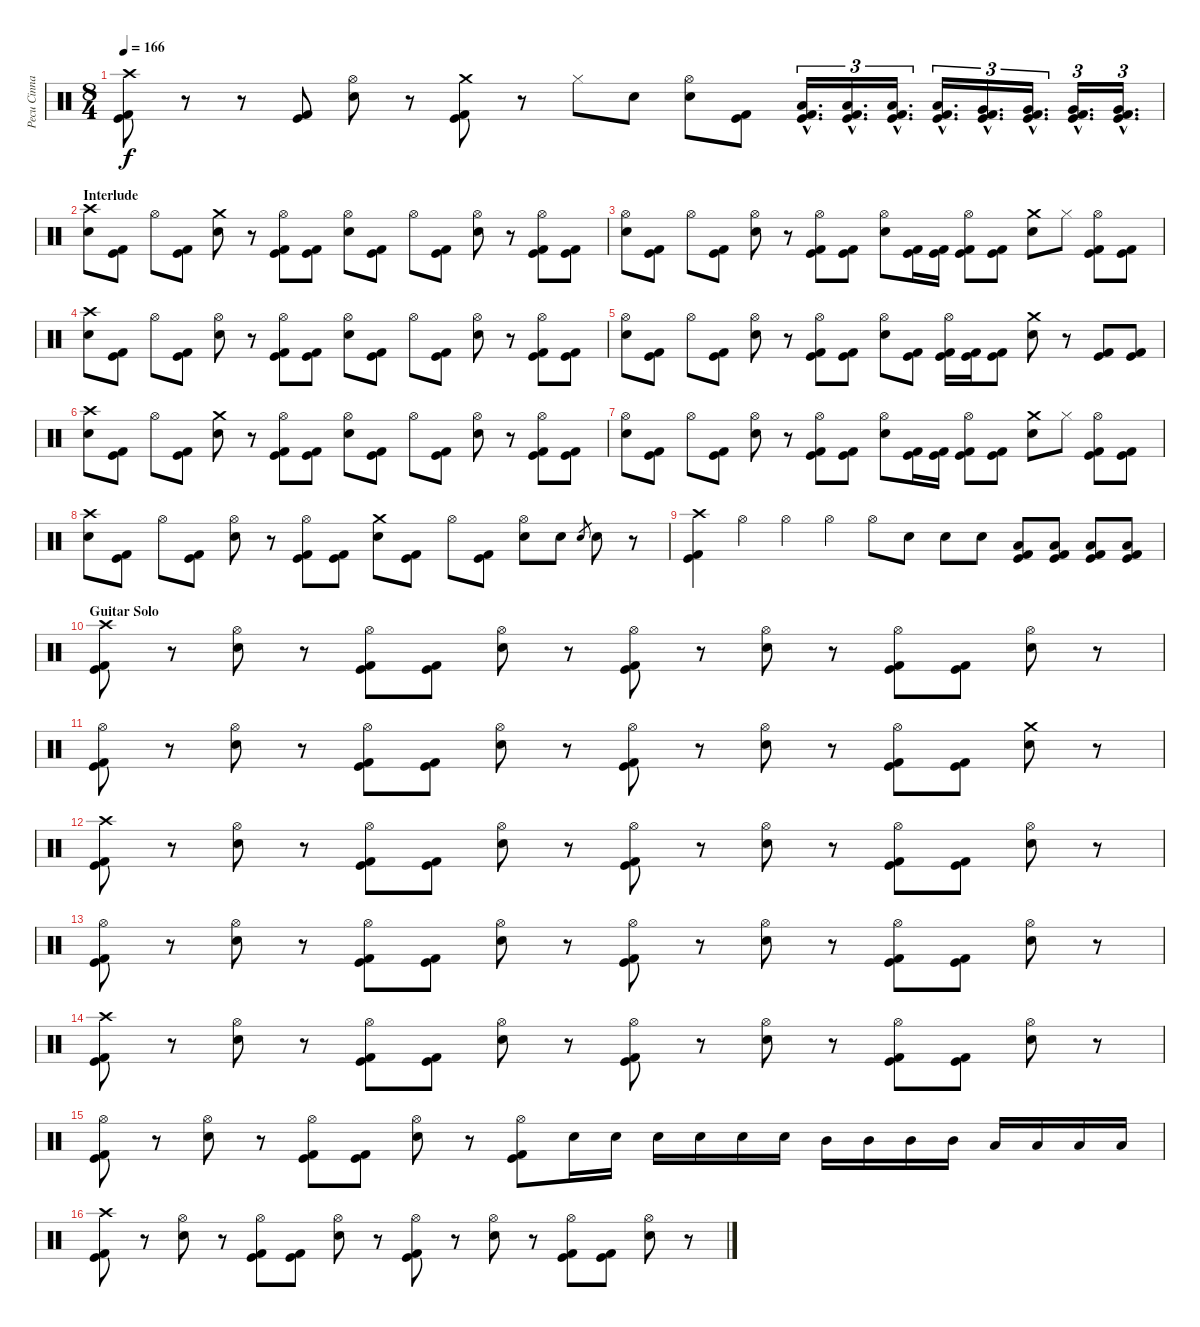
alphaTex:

\track ("Pecu Cinnari" "Pecu Cinna") {instrument percussion}
\staff {score}
\articulation defaults
\ts (8 4)
\tempo 166
\clef neutral
\ks c
("Crash high (hit)" "Kick (hit)" "Kick (hit) 2").8{dy f} r.8 r.8 ("Kick (hit)" "Kick (hit) 2").8 ("Hi-Hat (open)" "Electric Snare (hit)").8 r.8 ("Crash medium (hit)" "Kick (hit)" "Kick (hit) 2").8 r.8 "Hi-Hat (closed)".8 "Electric Snare (hit)".8 ("Hi-Hat (open)" "Electric Snare (hit)").8 ("Kick (hit)" "Kick (hit) 2").8 ("Low Tom (hit)"{hac} "Kick (hit)"{hac} "Kick (hit) 2"{hac}).16{d tu (3 2)} ("Low Tom (hit)"{hac} "Kick (hit)"{hac} "Kick (hit) 2"{hac}).16{d tu (3 2)} ("Low Tom (hit)"{hac} "Kick (hit)"{hac} "Kick (hit) 2"{hac}).16{d tu (3 2)} ("Low Tom (hit)"{hac} "Kick (hit)"{hac} "Kick (hit) 2"{hac}).16{d tu (3 2)} ("Very Low Tom (hit)"{hac} "Kick (hit)"{hac} "Kick (hit) 2"{hac}).16{d tu (3 2)} ("Very Low Tom (hit)"{hac} "Kick (hit)"{hac} "Kick (hit) 2"{hac}).16{d tu (3 2)} ("Very Low Tom (hit)"{hac} "Kick (hit)"{hac} "Kick (hit) 2"{hac}).16{d tu (3 2)} ("Very Low Tom (hit)"{hac} "Kick (hit)"{hac} "Kick (hit) 2"{hac}).16{d tu (3 2)} |
\section ("" "Interlude")
("Crash high (hit)" "Electric Snare (hit)").8 ("Kick (hit)" "Kick (hit) 2").8 "Hi-Hat (open)".8 ("Kick (hit)" "Kick (hit) 2").8 ("Crash medium (hit)" "Electric Snare (hit)").8 r.8 ("Hi-Hat (open)" "Kick (hit)" "Kick (hit) 2").8 ("Kick (hit)" "Kick (hit) 2").8 ("Hi-Hat (open)" "Electric Snare (hit)").8 ("Kick (hit)" "Kick (hit) 2").8 "Hi-Hat (open)".8 ("Kick (hit)" "Kick (hit) 2").8 ("Hi-Hat (open)" "Electric Snare (hit)").8 r.8 ("Hi-Hat (open)" "Kick (hit)" "Kick (hit) 2").8 ("Kick (hit)" "Kick (hit) 2").8 |
("Hi-Hat (open)" "Electric Snare (hit)").8 ("Kick (hit)" "Kick (hit) 2").8 "Hi-Hat (open)".8 ("Kick (hit)" "Kick (hit) 2").8 ("Hi-Hat (open)" "Electric Snare (hit)").8 r.8 ("Hi-Hat (open)" "Kick (hit)" "Kick (hit) 2").8 ("Kick (hit)" "Kick (hit) 2").8 ("Hi-Hat (open)" "Electric Snare (hit)").8 ("Kick (hit)" "Kick (hit) 2").16 ("Kick (hit)" "Kick (hit) 2").16 ("Hi-Hat (open)" "Kick (hit)" "Kick (hit) 2").8 ("Kick (hit)" "Kick (hit) 2").8 ("Crash medium (hit)" "Electric Snare (hit)").8 "Hi-Hat (closed)".8 ("Hi-Hat (open)" "Kick (hit)" "Kick (hit) 2").8 ("Kick (hit)" "Kick (hit) 2").8 |
("Crash high (hit)" "Electric Snare (hit)").8 ("Kick (hit)" "Kick (hit) 2").8 "Hi-Hat (open)".8 ("Kick (hit)" "Kick (hit) 2").8 ("Hi-Hat (open)" "Electric Snare (hit)").8 r.8 ("Hi-Hat (open)" "Kick (hit)" "Kick (hit) 2").8 ("Kick (hit)" "Kick (hit) 2").8 ("Hi-Hat (open)" "Electric Snare (hit)").8 ("Kick (hit)" "Kick (hit) 2").8 "Hi-Hat (open)".8 ("Kick (hit)" "Kick (hit) 2").8 ("Hi-Hat (open)" "Electric Snare (hit)").8 r.8 ("Hi-Hat (open)" "Kick (hit)" "Kick (hit) 2").8 ("Kick (hit)" "Kick (hit) 2").8 |
("Hi-Hat (open)" "Electric Snare (hit)").8 ("Kick (hit)" "Kick (hit) 2").8 "Hi-Hat (open)".8 ("Kick (hit)" "Kick (hit) 2").8 ("Hi-Hat (open)" "Electric Snare (hit)").8 r.8 ("Hi-Hat (open)" "Kick (hit)" "Kick (hit) 2").8 ("Kick (hit)" "Kick (hit) 2").8 ("Hi-Hat (open)" "Electric Snare (hit)").8 ("Kick (hit)" "Kick (hit) 2").8 ("Hi-Hat (open)" "Kick (hit)" "Kick (hit) 2").16 ("Kick (hit)" "Kick (hit) 2").16 ("Kick (hit)" "Kick (hit) 2").8 ("Crash medium (hit)" "Electric Snare (hit)").8 r.8 ("Kick (hit)" "Kick (hit) 2").8 ("Kick (hit)" "Kick (hit) 2").8 |
("Crash high (hit)" "Electric Snare (hit)").8 ("Kick (hit)" "Kick (hit) 2").8 "Hi-Hat (open)".8 ("Kick (hit)" "Kick (hit) 2").8 ("Crash medium (hit)" "Electric Snare (hit)").8 r.8 ("Hi-Hat (open)" "Kick (hit)" "Kick (hit) 2").8 ("Kick (hit)" "Kick (hit) 2").8 ("Hi-Hat (open)" "Electric Snare (hit)").8 ("Kick (hit)" "Kick (hit) 2").8 "Hi-Hat (open)".8 ("Kick (hit)" "Kick (hit) 2").8 ("Hi-Hat (open)" "Electric Snare (hit)").8 r.8 ("Hi-Hat (open)" "Kick (hit)" "Kick (hit) 2").8 ("Kick (hit)" "Kick (hit) 2").8 |
("Hi-Hat (open)" "Electric Snare (hit)").8 ("Kick (hit)" "Kick (hit) 2").8 "Hi-Hat (open)".8 ("Kick (hit)" "Kick (hit) 2").8 ("Hi-Hat (open)" "Electric Snare (hit)").8 r.8 ("Hi-Hat (open)" "Kick (hit)" "Kick (hit) 2").8 ("Kick (hit)" "Kick (hit) 2").8 ("Hi-Hat (open)" "Electric Snare (hit)").8 ("Kick (hit)" "Kick (hit) 2").16 ("Kick (hit)" "Kick (hit) 2").16 ("Hi-Hat (open)" "Kick (hit)" "Kick (hit) 2").8 ("Kick (hit)" "Kick (hit) 2").8 ("Crash medium (hit)" "Electric Snare (hit)").8 "Hi-Hat (closed)".8 ("Hi-Hat (open)" "Kick (hit)" "Kick (hit) 2").8 ("Kick (hit)" "Kick (hit) 2").8 |
("Crash high (hit)" "Electric Snare (hit)").8 ("Kick (hit)" "Kick (hit) 2").8 "Hi-Hat (open)".8 ("Kick (hit)" "Kick (hit) 2").8 ("Hi-Hat (open)" "Electric Snare (hit)").8 r.8 ("Hi-Hat (open)" "Kick (hit)" "Kick (hit) 2").8 ("Kick (hit)" "Kick (hit) 2").8 ("Crash medium (hit)" "Electric Snare (hit)").8 ("Kick (hit)" "Kick (hit) 2").8 "Hi-Hat (open)".8 ("Kick (hit)" "Kick (hit) 2").8 ("Hi-Hat (open)" "Electric Snare (hit)").8 "Electric Snare (hit)".8 "Electric Snare (hit)".8{gr} "Electric Snare (hit)".8 r.8 |
("Crash high (hit)" "Kick (hit)" "Kick (hit) 2").4 "Hi-Hat (open)".4 "Hi-Hat (open)".4 "Hi-Hat (open)".4 "Hi-Hat (open)".8 "Electric Snare (hit)".8 "Electric Snare (hit)".8 "Electric Snare (hit)".8 ("Low Tom (hit)" "Kick (hit)" "Kick (hit) 2").8 ("Low Tom (hit)" "Kick (hit)" "Kick (hit) 2").8 ("Low Tom (hit)" "Kick (hit)" "Kick (hit) 2").8 ("Low Tom (hit)" "Kick (hit)" "Kick (hit) 2").8 |
\section ("" "Guitar Solo")
("Crash high (hit)" "Kick (hit)" "Kick (hit) 2").8 r.8 ("Hi-Hat (open)" "Electric Snare (hit)").8 r.8 ("Hi-Hat (open)" "Kick (hit)" "Kick (hit) 2").8 ("Kick (hit)" "Kick (hit) 2").8 ("Hi-Hat (open)" "Electric Snare (hit)").8 r.8 ("Hi-Hat (open)" "Kick (hit)" "Kick (hit) 2").8 r.8 ("Hi-Hat (open)" "Electric Snare (hit)").8 r.8 ("Hi-Hat (open)" "Kick (hit)" "Kick (hit) 2").8 ("Kick (hit)" "Kick (hit) 2").8 ("Hi-Hat (open)" "Electric Snare (hit)").8 r.8 |
("Hi-Hat (open)" "Kick (hit)" "Kick (hit) 2").8 r.8 ("Hi-Hat (open)" "Electric Snare (hit)").8 r.8 ("Hi-Hat (open)" "Kick (hit)" "Kick (hit) 2").8 ("Kick (hit)" "Kick (hit) 2").8 ("Hi-Hat (open)" "Electric Snare (hit)").8 r.8 ("Hi-Hat (open)" "Kick (hit)" "Kick (hit) 2").8 r.8 ("Hi-Hat (open)" "Electric Snare (hit)").8 r.8 ("Hi-Hat (open)" "Kick (hit)" "Kick (hit) 2").8 ("Kick (hit)" "Kick (hit) 2").8 ("Crash medium (hit)" "Electric Snare (hit)").8 r.8 |
("Crash high (hit)" "Kick (hit)" "Kick (hit) 2").8 r.8 ("Hi-Hat (open)" "Electric Snare (hit)").8 r.8 ("Hi-Hat (open)" "Kick (hit)" "Kick (hit) 2").8 ("Kick (hit)" "Kick (hit) 2").8 ("Hi-Hat (open)" "Electric Snare (hit)").8 r.8 ("Hi-Hat (open)" "Kick (hit)" "Kick (hit) 2").8 r.8 ("Hi-Hat (open)" "Electric Snare (hit)").8 r.8 ("Hi-Hat (open)" "Kick (hit)" "Kick (hit) 2").8 ("Kick (hit)" "Kick (hit) 2").8 ("Hi-Hat (open)" "Electric Snare (hit)").8 r.8 |
("Hi-Hat (open)" "Kick (hit)" "Kick (hit) 2").8 r.8 ("Hi-Hat (open)" "Electric Snare (hit)").8 r.8 ("Hi-Hat (open)" "Kick (hit)" "Kick (hit) 2").8 ("Kick (hit)" "Kick (hit) 2").8 ("Hi-Hat (open)" "Electric Snare (hit)").8 r.8 ("Hi-Hat (open)" "Kick (hit)" "Kick (hit) 2").8 r.8 ("Hi-Hat (open)" "Electric Snare (hit)").8 r.8 ("Hi-Hat (open)" "Kick (hit)" "Kick (hit) 2").8 ("Kick (hit)" "Kick (hit) 2").8 ("Hi-Hat (open)" "Electric Snare (hit)").8 r.8 |
("Crash high (hit)" "Kick (hit)" "Kick (hit) 2").8 r.8 ("Hi-Hat (open)" "Electric Snare (hit)").8 r.8 ("Hi-Hat (open)" "Kick (hit)" "Kick (hit) 2").8 ("Kick (hit)" "Kick (hit) 2").8 ("Hi-Hat (open)" "Electric Snare (hit)").8 r.8 ("Hi-Hat (open)" "Kick (hit)" "Kick (hit) 2").8 r.8 ("Hi-Hat (open)" "Electric Snare (hit)").8 r.8 ("Hi-Hat (open)" "Kick (hit)" "Kick (hit) 2").8 ("Kick (hit)" "Kick (hit) 2").8 ("Hi-Hat (open)" "Electric Snare (hit)").8 r.8 |
("Hi-Hat (open)" "Kick (hit)" "Kick (hit) 2").8 r.8 ("Hi-Hat (open)" "Electric Snare (hit)").8 r.8 ("Hi-Hat (open)" "Kick (hit)" "Kick (hit) 2").8 ("Kick (hit)" "Kick (hit) 2").8 ("Hi-Hat (open)" "Electric Snare (hit)").8 r.8 ("Hi-Hat (open)" "Kick (hit)" "Kick (hit) 2").8 "Electric Snare (hit)".16 "Electric Snare (hit)".16 "Electric Snare (hit)".16 "Electric Snare (hit)".16 "Electric Snare (hit)".16 "Electric Snare (hit)".16 "Mid Tom (hit)".16 "Mid Tom (hit)".16 "Mid Tom (hit)".16 "Mid Tom (hit)".16 "Low Tom (hit)".16 "Low Tom (hit)".16 "Low Tom (hit)".16 "Low Tom (hit)".16 |
("Crash high (hit)" "Kick (hit)" "Kick (hit) 2").8 r.8 ("Hi-Hat (open)" "Electric Snare (hit)").8 r.8 ("Hi-Hat (open)" "Kick (hit)" "Kick (hit) 2").8 ("Kick (hit)" "Kick (hit) 2").8 ("Hi-Hat (open)" "Electric Snare (hit)").8 r.8 ("Hi-Hat (open)" "Kick (hit)" "Kick (hit) 2").8 r.8 ("Hi-Hat (open)" "Electric Snare (hit)").8 r.8 ("Hi-Hat (open)" "Kick (hit)" "Kick (hit) 2").8 ("Kick (hit)" "Kick (hit) 2").8 ("Hi-Hat (open)" "Electric Snare (hit)").8 r.8
